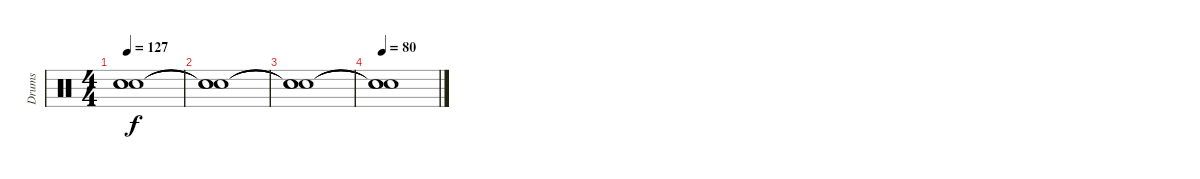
\track ("Drums" "Drums") {instrument percussion}
\staff {score}
\articulation defaults
\ts (4 4)
\tempo 127
\clef neutral
\ks c
("Snare (hit)"{t} "Snare (hit)"{t} "Snare (hit)"{t}).1{dy f} |
("Snare (hit)"{t} "Snare (hit)"{t} "Snare (hit)"{t}).1 |
("Snare (hit)"{t} "Snare (hit)"{t} "Snare (hit)"{t}).1 |
\tempo 80
("Snare (hit)"{t} "Snare (hit)"{t} "Snare (hit)"{t}).1
